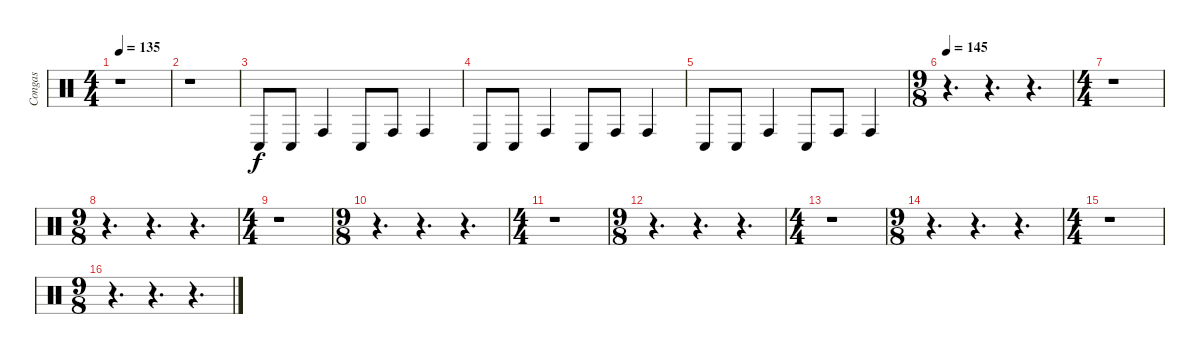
\track ("Congas" "Congas") {instrument percussion}
\staff {score}
\articulation defaults
\ts (4 4)
\tempo 135
\clef neutral
\ks c
r.1{dy f} |
r.1 |
"Conga low (hit)".8 "Conga low (hit)".8 "Conga high (hit)".4 "Conga low (hit)".8 "Conga high (hit)".8 "Conga high (hit)".4 |
"Conga low (hit)".8 "Conga low (hit)".8 "Conga high (hit)".4 "Conga low (hit)".8 "Conga high (hit)".8 "Conga high (hit)".4 |
"Conga low (hit)".8 "Conga low (hit)".8 "Conga high (hit)".4 "Conga low (hit)".8 "Conga high (hit)".8 "Conga high (hit)".4 |
\ts (9 8)
\tempo 145
r.4{d} r.4{d} r.4{d} |
\ts (4 4)
r.1 |
\ts (9 8)
r.4{d} r.4{d} r.4{d} |
\ts (4 4)
r.1 |
\ts (9 8)
r.4{d} r.4{d} r.4{d} |
\ts (4 4)
r.1 |
\ts (9 8)
r.4{d} r.4{d} r.4{d} |
\ts (4 4)
r.1 |
\ts (9 8)
r.4{d} r.4{d} r.4{d} |
\ts (4 4)
r.1 |
\ts (9 8)
r.4{d} r.4{d} r.4{d}
